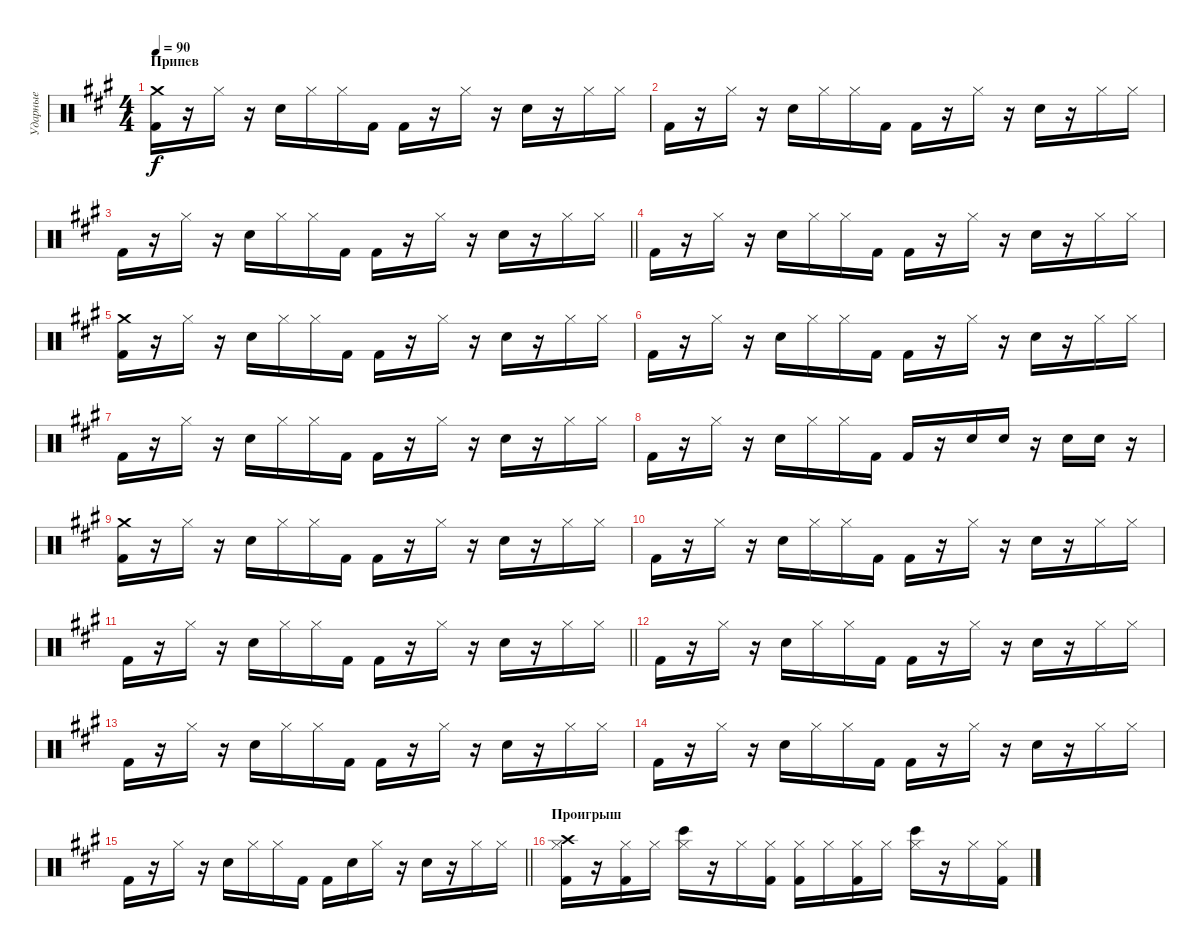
\track ("Ударные" "Ударные") {instrument percussion}
\staff {score}
\articulation defaults
\ts (4 4)
\section ("" "Припев")
\tempo 90
\clef neutral
\ks f#minor
("Crash medium (hit)" "Kick (hit) 2").16{dy f} r.16 "Hi-Hat (closed)".16 r.16 "Electric Snare (hit)".16 "Hi-Hat (closed)".16 "Hi-Hat (closed)".16 "Kick (hit) 2".16 "Kick (hit) 2".16 r.16 "Hi-Hat (closed)".16 r.16 "Electric Snare (hit)".16 r.16 "Hi-Hat (closed)".16 "Hi-Hat (closed)".16 |
"Kick (hit) 2".16 r.16 "Hi-Hat (closed)".16 r.16 "Electric Snare (hit)".16 "Hi-Hat (closed)".16 "Hi-Hat (closed)".16 "Kick (hit) 2".16 "Kick (hit) 2".16 r.16 "Hi-Hat (closed)".16 r.16 "Electric Snare (hit)".16 r.16 "Hi-Hat (closed)".16 "Hi-Hat (closed)".16 |
\barLineRight lightlight "Kick (hit) 2".16
r.16 "Hi-Hat (closed)".16 r.16 "Electric Snare (hit)".16 "Hi-Hat (closed)".16 "Hi-Hat (closed)".16 "Kick (hit) 2".16 "Kick (hit) 2".16 r.16 "Hi-Hat (closed)".16 r.16 "Electric Snare (hit)".16 r.16 "Hi-Hat (closed)".16 "Hi-Hat (closed)".16 |
"Kick (hit) 2".16 r.16 "Hi-Hat (closed)".16 r.16 "Electric Snare (hit)".16 "Hi-Hat (closed)".16 "Hi-Hat (closed)".16 "Kick (hit) 2".16 "Kick (hit) 2".16 r.16 "Hi-Hat (closed)".16 r.16 "Electric Snare (hit)".16 r.16 "Hi-Hat (closed)".16 "Hi-Hat (closed)".16 |
("Crash medium (hit)" "Kick (hit) 2").16 r.16 "Hi-Hat (closed)".16 r.16 "Electric Snare (hit)".16 "Hi-Hat (closed)".16 "Hi-Hat (closed)".16 "Kick (hit) 2".16 "Kick (hit) 2".16 r.16 "Hi-Hat (closed)".16 r.16 "Electric Snare (hit)".16 r.16 "Hi-Hat (closed)".16 "Hi-Hat (closed)".16 |
"Kick (hit) 2".16 r.16 "Hi-Hat (closed)".16 r.16 "Electric Snare (hit)".16 "Hi-Hat (closed)".16 "Hi-Hat (closed)".16 "Kick (hit) 2".16 "Kick (hit) 2".16 r.16 "Hi-Hat (closed)".16 r.16 "Electric Snare (hit)".16 r.16 "Hi-Hat (closed)".16 "Hi-Hat (closed)".16 |
"Kick (hit) 2".16 r.16 "Hi-Hat (closed)".16 r.16 "Electric Snare (hit)".16 "Hi-Hat (closed)".16 "Hi-Hat (closed)".16 "Kick (hit) 2".16 "Kick (hit) 2".16 r.16 "Hi-Hat (closed)".16 r.16 "Electric Snare (hit)".16 r.16 "Hi-Hat (closed)".16 "Hi-Hat (closed)".16 |
"Kick (hit) 2".16 r.16 "Hi-Hat (closed)".16 r.16 "Electric Snare (hit)".16 "Hi-Hat (closed)".16 "Hi-Hat (closed)".16 "Kick (hit) 2".16 "Kick (hit) 2".16 r.16 "Electric Snare (hit)".16 "Electric Snare (hit)".16 r.16 "Electric Snare (hit)".16 "Electric Snare (hit)".16 r.16 |
("Crash medium (hit)" "Kick (hit) 2").16 r.16 "Hi-Hat (closed)".16 r.16 "Electric Snare (hit)".16 "Hi-Hat (closed)".16 "Hi-Hat (closed)".16 "Kick (hit) 2".16 "Kick (hit) 2".16 r.16 "Hi-Hat (closed)".16 r.16 "Electric Snare (hit)".16 r.16 "Hi-Hat (closed)".16 "Hi-Hat (closed)".16 |
"Kick (hit) 2".16 r.16 "Hi-Hat (closed)".16 r.16 "Electric Snare (hit)".16 "Hi-Hat (closed)".16 "Hi-Hat (closed)".16 "Kick (hit) 2".16 "Kick (hit) 2".16 r.16 "Hi-Hat (closed)".16 r.16 "Electric Snare (hit)".16 r.16 "Hi-Hat (closed)".16 "Hi-Hat (closed)".16 |
\barLineRight lightlight "Kick (hit) 2".16
r.16 "Hi-Hat (closed)".16 r.16 "Electric Snare (hit)".16 "Hi-Hat (closed)".16 "Hi-Hat (closed)".16 "Kick (hit) 2".16 "Kick (hit) 2".16 r.16 "Hi-Hat (closed)".16 r.16 "Electric Snare (hit)".16 r.16 "Hi-Hat (closed)".16 "Hi-Hat (closed)".16 |
"Kick (hit) 2".16 r.16 "Hi-Hat (closed)".16 r.16 "Electric Snare (hit)".16 "Hi-Hat (closed)".16 "Hi-Hat (closed)".16 "Kick (hit) 2".16 "Kick (hit) 2".16 r.16 "Hi-Hat (closed)".16 r.16 "Electric Snare (hit)".16 r.16 "Hi-Hat (closed)".16 "Hi-Hat (closed)".16 |
"Kick (hit) 2".16 r.16 "Hi-Hat (closed)".16 r.16 "Electric Snare (hit)".16 "Hi-Hat (closed)".16 "Hi-Hat (closed)".16 "Kick (hit) 2".16 "Kick (hit) 2".16 r.16 "Hi-Hat (closed)".16 r.16 "Electric Snare (hit)".16 r.16 "Hi-Hat (closed)".16 "Hi-Hat (closed)".16 |
"Kick (hit) 2".16 r.16 "Hi-Hat (closed)".16 r.16 "Electric Snare (hit)".16 "Hi-Hat (closed)".16 "Hi-Hat (closed)".16 "Kick (hit) 2".16 "Kick (hit) 2".16 r.16 "Hi-Hat (closed)".16 r.16 "Electric Snare (hit)".16 r.16 "Hi-Hat (closed)".16 "Hi-Hat (closed)".16 |
\barLineRight lightlight "Kick (hit) 2".16
r.16 "Hi-Hat (closed)".16 r.16 "Electric Snare (hit)".16 "Hi-Hat (closed)".16 "Hi-Hat (closed)".16 "Kick (hit) 2".16 "Kick (hit) 2".16 "Electric Snare (hit)".16 "Hi-Hat (closed)".16 r.16 "Electric Snare (hit)".16 r.16 "Hi-Hat (closed)".16 "Hi-Hat (closed)".16 |
\section ("" "Проигрыш")
("Hi-Hat (closed)" "Kick (hit) 2" "Crash high (hit)").16 r.16 ("Hi-Hat (closed)" "Kick (hit) 2").16 "Hi-Hat (closed)".16 ("Hi-Hat (closed)" "Bongo High (hit)").16 r.16 "Hi-Hat (closed)".16 ("Hi-Hat (closed)" "Kick (hit) 2").16 ("Hi-Hat (closed)" "Kick (hit) 2").16 "Hi-Hat (closed)".16 ("Hi-Hat (closed)" "Kick (hit) 2").16 "Hi-Hat (closed)".16 ("Hi-Hat (closed)" "Bongo High (hit)").16 r.16 "Hi-Hat (closed)".16 ("Hi-Hat (closed)" "Kick (hit) 2").16
